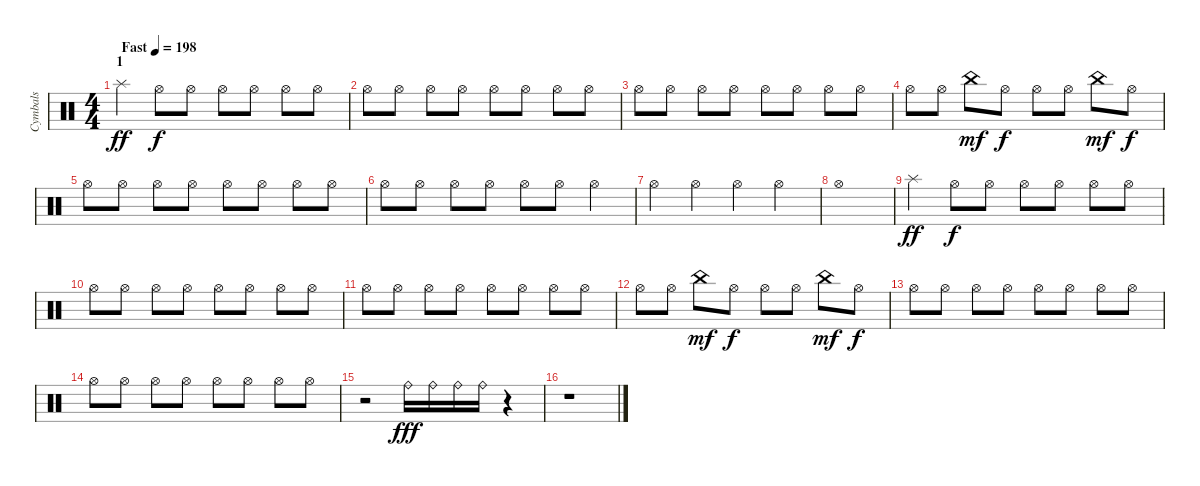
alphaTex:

\track ("Cymbals" "Cymbals") {instrument percussion}
\staff {score}
\articulation defaults
\ts (4 4)
\section ("" "1")
\tempo (198 "Fast")
\clef neutral
\ks c "Splash (hit)".4{dy ff} "Hi-Hat (open)".8{dy f} "Hi-Hat (open)".8 "Hi-Hat (open)".8 "Hi-Hat (open)".8 "Hi-Hat (open)".8 "Hi-Hat (open)".8
|
"Hi-Hat (open)".8 "Hi-Hat (open)".8 "Hi-Hat (open)".8 "Hi-Hat (open)".8 "Hi-Hat (open)".8 "Hi-Hat (open)".8 "Hi-Hat (open)".8 "Hi-Hat (open)".8 |
"Hi-Hat (open)".8 "Hi-Hat (open)".8 "Hi-Hat (open)".8 "Hi-Hat (open)".8 "Hi-Hat (open)".8 "Hi-Hat (open)".8 "Hi-Hat (open)".8 "Hi-Hat (open)".8 |
"Hi-Hat (open)".8 "Hi-Hat (open)".8 "China (hit)".8{dy mf} "Hi-Hat (open)".8{dy f} "Hi-Hat (open)".8 "Hi-Hat (open)".8 "China (hit)".8{dy mf} "Hi-Hat (open)".8{dy f} |
"Hi-Hat (open)".8 "Hi-Hat (open)".8 "Hi-Hat (open)".8 "Hi-Hat (open)".8 "Hi-Hat (open)".8 "Hi-Hat (open)".8 "Hi-Hat (open)".8 "Hi-Hat (open)".8 |
"Hi-Hat (open)".8 "Hi-Hat (open)".8 "Hi-Hat (open)".8 "Hi-Hat (open)".8 "Hi-Hat (open)".8 "Hi-Hat (open)".8 "Hi-Hat (open)".4 |
"Hi-Hat (open)".4 "Hi-Hat (open)".4 "Hi-Hat (open)".4 "Hi-Hat (open)".4 |
"Hi-Hat (open)".1 |
"Splash (hit)".4{dy ff} "Hi-Hat (open)".8{dy f} "Hi-Hat (open)".8 "Hi-Hat (open)".8 "Hi-Hat (open)".8 "Hi-Hat (open)".8 "Hi-Hat (open)".8 |
"Hi-Hat (open)".8 "Hi-Hat (open)".8 "Hi-Hat (open)".8 "Hi-Hat (open)".8 "Hi-Hat (open)".8 "Hi-Hat (open)".8 "Hi-Hat (open)".8 "Hi-Hat (open)".8 |
"Hi-Hat (open)".8 "Hi-Hat (open)".8 "Hi-Hat (open)".8 "Hi-Hat (open)".8 "Hi-Hat (open)".8 "Hi-Hat (open)".8 "Hi-Hat (open)".8 "Hi-Hat (open)".8 |
"Hi-Hat (open)".8 "Hi-Hat (open)".8 "China (hit)".8{dy mf} "Hi-Hat (open)".8{dy f} "Hi-Hat (open)".8 "Hi-Hat (open)".8 "China (hit)".8{dy mf} "Hi-Hat (open)".8{dy f} |
"Hi-Hat (open)".8 "Hi-Hat (open)".8 "Hi-Hat (open)".8 "Hi-Hat (open)".8 "Hi-Hat (open)".8 "Hi-Hat (open)".8 "Hi-Hat (open)".8 "Hi-Hat (open)".8 |
"Hi-Hat (open)".8 "Hi-Hat (open)".8 "Hi-Hat (open)".8 "Hi-Hat (open)".8 "Hi-Hat (open)".8 "Hi-Hat (open)".8 "Hi-Hat (open)".8 "Hi-Hat (open)".8 |
r.2 "Ride (bell)".16{dy fff} "Ride (bell)".16 "Ride (bell)".16 "Ride (bell)".16 r.4 |
r.1
